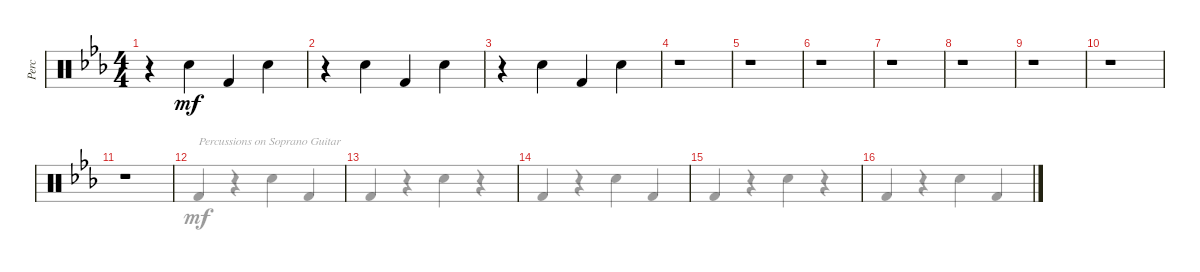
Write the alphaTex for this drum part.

\defaultSystemsLayout 4
\bracketExtendMode groupsimilarinstruments
\otherSystemsTrackNameOrientation horizontal
\track ("Percussions" "Perc") {instrument percussion}
\staff {score}
\articulation defaults
\voice
\ts (4 4)
\tempo (140 hide)
\clef neutral
\ks cminor
r.4{dy mf beam Down} "Snare (hit) 2"{acc forcenatural}.4{beam Down} "Kick (hit) 2"{acc forcenatural}.4{beam Up} "Snare (hit) 2"{acc forcenatural}.4{beam Down} |
r.4{beam Down} "Snare (hit) 2"{acc forcenatural}.4{beam Down} "Kick (hit) 2"{acc forcenatural}.4{beam Up} "Snare (hit) 2"{acc forcenatural}.4{beam Down} |
r.4{beam Down} "Snare (hit) 2"{acc forcenatural}.4{beam Down} "Kick (hit) 2"{acc forcenatural}.4{beam Up} "Snare (hit) 2"{acc forcenatural}.4{beam Down} |
r.1{beam Down} |
r.1{beam Down} |
r.1{beam Down} |
r.1{beam Down} |
r.1{beam Down} |
r.1{beam Down} |
r.1{beam Down} |
r.1{beam Down} |
|
|
|
|
\voice
\clef neutral
\ottava regular
\simile none
\ks cminor
|
|
|
|
|
|
|
|
|
|
|
"Kick (hit) 2"{acc forcenatural}.4{txt "Percussions on Soprano Guitar" beam Up} r.4{beam Up} "Snare (hit) 2"{acc forcenatural}.4{beam Down} "Kick (hit) 2"{acc forcenatural}.4{beam Up} |
"Kick (hit) 2"{acc forcenatural}.4{beam Up} r.4{beam Up} "Snare (hit) 2"{acc forcenatural}.4{beam Down} r.4{beam Down} |
"Kick (hit) 2"{acc forcenatural}.4{beam Up} r.4{beam Up} "Snare (hit) 2"{acc forcenatural}.4{beam Down} "Kick (hit) 2"{acc forcenatural}.4{beam Up} |
"Kick (hit) 2"{acc forcenatural}.4{beam Up} r.4{beam Up} "Snare (hit) 2"{acc forcenatural}.4{beam Down} r.4{beam Down} |
"Kick (hit) 2"{acc forcenatural}.4{beam Up} r.4{beam Up} "Snare (hit) 2"{acc forcenatural}.4{beam Down} "Kick (hit) 2"{acc forcenatural}.4{beam Up}
